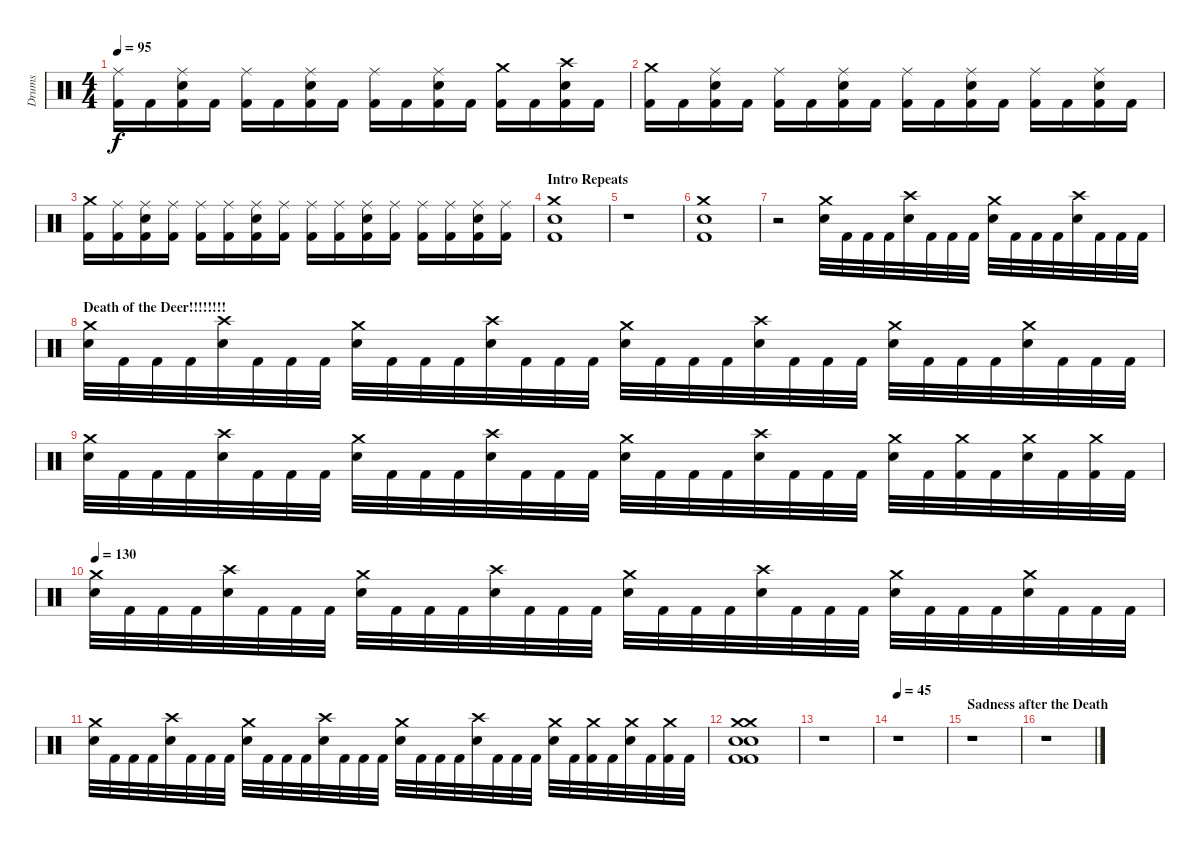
\track ("Drums" "Drums") {instrument percussion}
\staff {score}
\articulation defaults
\ts (4 4)
\tempo 95
\clef neutral
\ks c
("Ride (middle)" "Kick (hit) 2").16{dy f} "Kick (hit) 2".16 ("Ride (middle)" "Electric Snare (hit)" "Kick (hit) 2").16 "Kick (hit) 2".16 ("Ride (middle)" "Kick (hit) 2").16 "Kick (hit) 2".16 ("Ride (middle)" "Electric Snare (hit)" "Kick (hit) 2").16 "Kick (hit) 2".16 ("Ride (middle)" "Kick (hit) 2").16 "Kick (hit) 2".16 ("Ride (middle)" "Electric Snare (hit)" "Kick (hit) 2").16 "Kick (hit) 2".16 ("Crash medium (hit)" "Kick (hit) 2").16 "Kick (hit) 2".16 ("Crash high (hit)" "Electric Snare (hit)" "Kick (hit) 2").16 "Kick (hit) 2".16 |
("Crash medium (hit)" "Kick (hit) 2").16{balance 8} "Kick (hit) 2".16 ("Ride (middle)" "Electric Snare (hit)" "Kick (hit) 2").16 "Kick (hit) 2".16 ("Ride (middle)" "Kick (hit) 2").16 "Kick (hit) 2".16 ("Ride (middle)" "Electric Snare (hit)" "Kick (hit) 2").16 "Kick (hit) 2".16 ("Ride (middle)" "Kick (hit) 2").16 "Kick (hit) 2".16 ("Ride (middle)" "Electric Snare (hit)" "Kick (hit) 2").16 "Kick (hit) 2".16 ("Ride (middle)" "Kick (hit) 2").16 "Kick (hit) 2".16 ("Ride (middle)" "Electric Snare (hit)" "Kick (hit) 2").16 "Kick (hit) 2".16 |
("Crash medium (hit)" "Kick (hit) 2").16{balance 8} ("Ride (middle)" "Kick (hit) 2").16 ("Ride (middle)" "Electric Snare (hit)" "Kick (hit) 2").16 ("Ride (middle)" "Kick (hit) 2").16 ("Ride (middle)" "Kick (hit) 2").16 ("Ride (middle)" "Kick (hit) 2").16 ("Ride (middle)" "Electric Snare (hit)" "Kick (hit) 2").16 ("Ride (middle)" "Kick (hit) 2").16 ("Ride (middle)" "Kick (hit) 2").16 ("Ride (middle)" "Kick (hit) 2").16 ("Ride (middle)" "Electric Snare (hit)" "Kick (hit) 2").16 ("Ride (middle)" "Kick (hit) 2").16 ("Ride (middle)" "Kick (hit) 2").16 ("Ride (middle)" "Kick (hit) 2").16 ("Ride (middle)" "Electric Snare (hit)" "Kick (hit) 2").16 ("Ride (middle)" "Kick (hit) 2").16 |
\section ("" "Intro Repeats")
("Crash medium (hit)" "Electric Snare (hit)" "Kick (hit) 2").1 |
r.1 |
("Crash medium (hit)" "Electric Snare (hit)" "Kick (hit) 2").1 |
r.2 ("Crash medium (hit)" "Electric Snare (hit)").32{balance 0} "Kick (hit) 2".32{balance 8} "Kick (hit) 2".32 "Kick (hit) 2".32 ("Crash high (hit)" "Electric Snare (hit)").32{balance 16} "Kick (hit) 2".32{balance 8} "Kick (hit) 2".32 "Kick (hit) 2".32 ("Crash medium (hit)" "Electric Snare (hit)").32{balance 0} "Kick (hit) 2".32{balance 8} "Kick (hit) 2".32 "Kick (hit) 2".32 ("Crash high (hit)" "Electric Snare (hit)").32{balance 16} "Kick (hit) 2".32 "Kick (hit) 2".32 "Kick (hit) 2".32 |
\section ("" "Death of the Deer!!!!!!!!")
("Crash medium (hit)" "Electric Snare (hit)").32{balance 0} "Kick (hit) 2".32{balance 8} "Kick (hit) 2".32 "Kick (hit) 2".32 ("Crash high (hit)" "Electric Snare (hit)").32{balance 16} "Kick (hit) 2".32{balance 8} "Kick (hit) 2".32 "Kick (hit) 2".32 ("Crash medium (hit)" "Electric Snare (hit)").32{balance 0} "Kick (hit) 2".32{balance 8} "Kick (hit) 2".32 "Kick (hit) 2".32 ("Crash high (hit)" "Electric Snare (hit)").32{balance 16} "Kick (hit) 2".32{balance 8} "Kick (hit) 2".32 "Kick (hit) 2".32 ("Crash medium (hit)" "Electric Snare (hit)").32{balance 0} "Kick (hit) 2".32{balance 8} "Kick (hit) 2".32 "Kick (hit) 2".32 ("Crash high (hit)" "Electric Snare (hit)").32{balance 16} "Kick (hit) 2".32{balance 8} "Kick (hit) 2".32 "Kick (hit) 2".32 ("Crash medium (hit)" "Electric Snare (hit)").32{balance 0} "Kick (hit) 2".32{balance 8} "Kick (hit) 2".32 "Kick (hit) 2".32 ("Crash medium (hit)" "Electric Snare (hit)").32{balance 16} "Kick (hit) 2".32{balance 8} "Kick (hit) 2".32 "Kick (hit) 2".32 |
("Crash medium (hit)" "Electric Snare (hit)").32{balance 0} "Kick (hit) 2".32{balance 8} "Kick (hit) 2".32 "Kick (hit) 2".32 ("Crash high (hit)" "Electric Snare (hit)").32{balance 16} "Kick (hit) 2".32{balance 8} "Kick (hit) 2".32 "Kick (hit) 2".32 ("Crash medium (hit)" "Electric Snare (hit)").32{balance 0} "Kick (hit) 2".32{balance 8} "Kick (hit) 2".32 "Kick (hit) 2".32 ("Crash high (hit)" "Electric Snare (hit)").32{balance 16} "Kick (hit) 2".32{balance 8} "Kick (hit) 2".32 "Kick (hit) 2".32 ("Crash medium (hit)" "Electric Snare (hit)").32{balance 0} "Kick (hit) 2".32{balance 8} "Kick (hit) 2".32 "Kick (hit) 2".32 ("Crash high (hit)" "Electric Snare (hit)").32{balance 16} "Kick (hit) 2".32{balance 8} "Kick (hit) 2".32 "Kick (hit) 2".32 ("Crash medium (hit)" "Electric Snare (hit)").32{balance 0} "Kick (hit) 2".32{balance 8} ("Crash medium (hit)" "Kick (hit) 2").32 "Kick (hit) 2".32 ("Crash medium (hit)" "Electric Snare (hit)").32{balance 16} "Kick (hit) 2".32{balance 8} ("Crash medium (hit)" "Kick (hit) 2").32 "Kick (hit) 2".32 |
\tempo 130
("Crash medium (hit)" "Electric Snare (hit)").32{balance 0} "Kick (hit) 2".32{balance 8} "Kick (hit) 2".32 "Kick (hit) 2".32 ("Crash high (hit)" "Electric Snare (hit)").32{balance 16} "Kick (hit) 2".32{balance 8} "Kick (hit) 2".32 "Kick (hit) 2".32 ("Crash medium (hit)" "Electric Snare (hit)").32{balance 0} "Kick (hit) 2".32{balance 8} "Kick (hit) 2".32 "Kick (hit) 2".32 ("Crash high (hit)" "Electric Snare (hit)").32{balance 16} "Kick (hit) 2".32{balance 8} "Kick (hit) 2".32 "Kick (hit) 2".32 ("Crash medium (hit)" "Electric Snare (hit)").32{balance 0} "Kick (hit) 2".32{balance 8} "Kick (hit) 2".32 "Kick (hit) 2".32 ("Crash high (hit)" "Electric Snare (hit)").32{balance 16} "Kick (hit) 2".32{balance 8} "Kick (hit) 2".32 "Kick (hit) 2".32 ("Crash medium (hit)" "Electric Snare (hit)").32{balance 0} "Kick (hit) 2".32{balance 8} "Kick (hit) 2".32 "Kick (hit) 2".32 ("Crash medium (hit)" "Electric Snare (hit)").32{balance 16} "Kick (hit) 2".32{balance 8} "Kick (hit) 2".32 "Kick (hit) 2".32 |
("Crash medium (hit)" "Electric Snare (hit)").32{balance 0} "Kick (hit) 2".32{balance 8} "Kick (hit) 2".32 "Kick (hit) 2".32 ("Crash high (hit)" "Electric Snare (hit)").32{balance 16} "Kick (hit) 2".32{balance 8} "Kick (hit) 2".32 "Kick (hit) 2".32 ("Crash medium (hit)" "Electric Snare (hit)").32{balance 0} "Kick (hit) 2".32{balance 8} "Kick (hit) 2".32 "Kick (hit) 2".32 ("Crash high (hit)" "Electric Snare (hit)").32{balance 16} "Kick (hit) 2".32{balance 8} "Kick (hit) 2".32 "Kick (hit) 2".32 ("Crash medium (hit)" "Electric Snare (hit)").32{balance 0} "Kick (hit) 2".32{balance 8} "Kick (hit) 2".32 "Kick (hit) 2".32 ("Crash high (hit)" "Electric Snare (hit)").32{balance 16} "Kick (hit) 2".32{balance 8} "Kick (hit) 2".32 "Kick (hit) 2".32 ("Crash medium (hit)" "Electric Snare (hit)").32{balance 0} "Kick (hit) 2".32{balance 8} ("Crash medium (hit)" "Kick (hit) 2").32 "Kick (hit) 2".32 ("Crash medium (hit)" "Electric Snare (hit)").32{balance 16} "Kick (hit) 2".32{balance 8} ("Crash medium (hit)" "Kick (hit) 2").32 "Kick (hit) 2".32 |
("Crash medium (hit)" "Crash medium (hit)" "Electric Snare (hit)" "Electric Snare (hit)" "Kick (hit) 2" "Kick (hit) 2").1 |
r.1 |
\tempo 45
r.1 |
\section ("" "Sadness after the Death")
r.1 |
r.1
